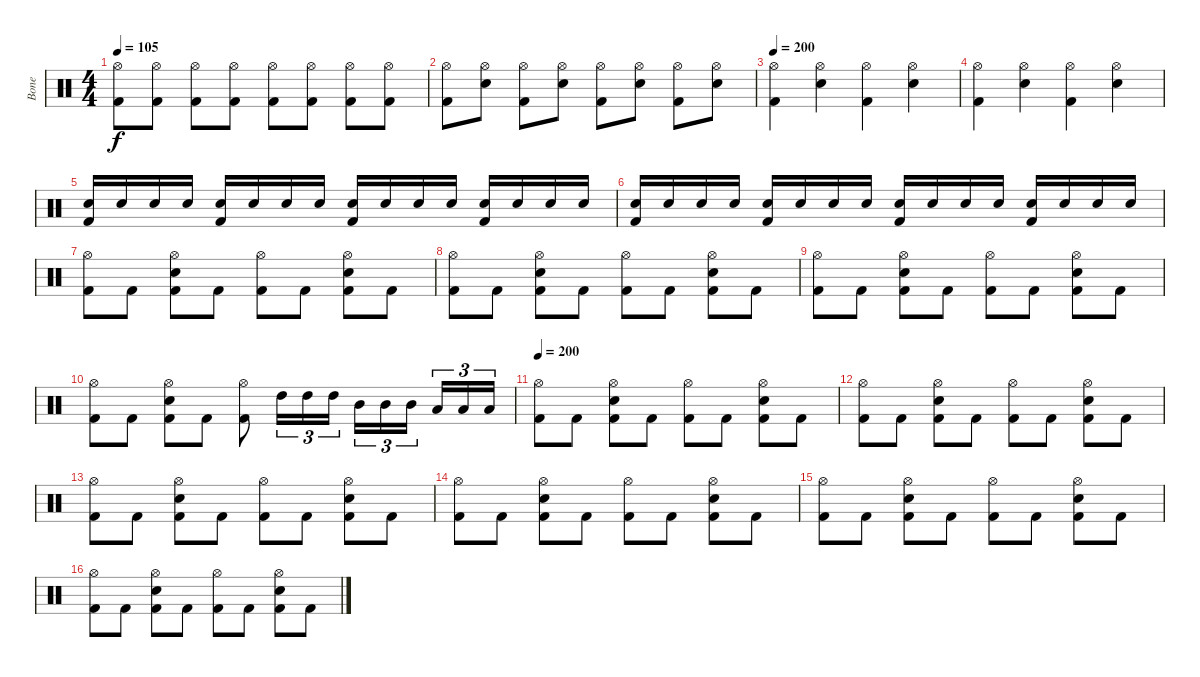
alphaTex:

\track ("Bone " "Bone ") {instrument percussion}
\staff {score}
\articulation defaults
\ts (4 4)
\tempo 105
\clef neutral
\ks c
("Hi-Hat (open)" "Kick (hit) 2").8{dy f} ("Hi-Hat (open)" "Kick (hit) 2").8 ("Hi-Hat (open)" "Kick (hit) 2").8 ("Hi-Hat (open)" "Kick (hit) 2").8 ("Hi-Hat (open)" "Kick (hit) 2").8 ("Hi-Hat (open)" "Kick (hit) 2").8 ("Hi-Hat (open)" "Kick (hit) 2").8 ("Hi-Hat (open)" "Kick (hit) 2").8 |
("Hi-Hat (open)" "Kick (hit) 2").8 ("Hi-Hat (open)" "Electric Snare (hit)").8 ("Hi-Hat (open)" "Kick (hit) 2").8 ("Hi-Hat (open)" "Electric Snare (hit)").8 ("Hi-Hat (open)" "Kick (hit) 2").8 ("Hi-Hat (open)" "Electric Snare (hit)").8 ("Hi-Hat (open)" "Kick (hit) 2").8 ("Hi-Hat (open)" "Electric Snare (hit)").8 |
\tempo 200
("Hi-Hat (open)" "Kick (hit) 2").4 ("Hi-Hat (open)" "Electric Snare (hit)").4 ("Hi-Hat (open)" "Kick (hit) 2").4 ("Hi-Hat (open)" "Electric Snare (hit)").4 |
("Hi-Hat (open)" "Kick (hit) 2").4 ("Hi-Hat (open)" "Electric Snare (hit)").4 ("Hi-Hat (open)" "Kick (hit) 2").4 ("Hi-Hat (open)" "Electric Snare (hit)").4 |
("Electric Snare (hit)" "Kick (hit) 2").16 "Electric Snare (hit)".16 "Electric Snare (hit)".16 "Electric Snare (hit)".16 ("Electric Snare (hit)" "Kick (hit) 2").16 "Electric Snare (hit)".16 "Electric Snare (hit)".16 "Electric Snare (hit)".16 ("Electric Snare (hit)" "Kick (hit) 2").16 "Electric Snare (hit)".16 "Electric Snare (hit)".16 "Electric Snare (hit)".16 ("Electric Snare (hit)" "Kick (hit) 2").16 "Electric Snare (hit)".16 "Electric Snare (hit)".16 "Electric Snare (hit)".16 |
("Electric Snare (hit)" "Kick (hit) 2").16 "Electric Snare (hit)".16 "Electric Snare (hit)".16 "Electric Snare (hit)".16 ("Electric Snare (hit)" "Kick (hit) 2").16 "Electric Snare (hit)".16 "Electric Snare (hit)".16 "Electric Snare (hit)".16 ("Electric Snare (hit)" "Kick (hit) 2").16 "Electric Snare (hit)".16 "Electric Snare (hit)".16 "Electric Snare (hit)".16 ("Electric Snare (hit)" "Kick (hit) 2").16 "Electric Snare (hit)".16 "Electric Snare (hit)".16 "Electric Snare (hit)".16 |
("Hi-Hat (open)" "Kick (hit) 2").8 "Kick (hit) 2".8 ("Hi-Hat (open)" "Electric Snare (hit)" "Kick (hit) 2").8 "Kick (hit) 2".8 ("Hi-Hat (open)" "Kick (hit) 2").8 "Kick (hit) 2".8 ("Hi-Hat (open)" "Electric Snare (hit)" "Kick (hit) 2").8 "Kick (hit) 2".8 |
("Hi-Hat (open)" "Kick (hit) 2").8 "Kick (hit) 2".8 ("Hi-Hat (open)" "Electric Snare (hit)" "Kick (hit) 2").8 "Kick (hit) 2".8 ("Hi-Hat (open)" "Kick (hit) 2").8 "Kick (hit) 2".8 ("Hi-Hat (open)" "Electric Snare (hit)" "Kick (hit) 2").8 "Kick (hit) 2".8 |
("Hi-Hat (open)" "Kick (hit) 2").8 "Kick (hit) 2".8 ("Hi-Hat (open)" "Electric Snare (hit)" "Kick (hit) 2").8 "Kick (hit) 2".8 ("Hi-Hat (open)" "Kick (hit) 2").8 "Kick (hit) 2".8 ("Hi-Hat (open)" "Electric Snare (hit)" "Kick (hit) 2").8 "Kick (hit) 2".8 |
("Hi-Hat (open)" "Kick (hit) 2").8 "Kick (hit) 2".8 ("Hi-Hat (open)" "Electric Snare (hit)" "Kick (hit) 2").8 "Kick (hit) 2".8 ("Hi-Hat (open)" "Kick (hit) 2").8 "High Tom (hit)".16{tu (3 2)} "High Tom (hit)".16{tu (3 2)} "High Tom (hit)".16{tu (3 2)} "Mid Tom (hit)".16{tu (3 2)} "Mid Tom (hit)".16{tu (3 2)} "Mid Tom (hit)".16{tu (3 2)} "Low Tom (hit)".16{tu (3 2)} "Low Tom (hit)".16{tu (3 2)} "Low Tom (hit)".16{tu (3 2)} |
\tempo 200
("Hi-Hat (open)" "Kick (hit) 2").8 "Kick (hit) 2".8 ("Hi-Hat (open)" "Electric Snare (hit)" "Kick (hit) 2").8 "Kick (hit) 2".8 ("Hi-Hat (open)" "Kick (hit) 2").8 "Kick (hit) 2".8 ("Hi-Hat (open)" "Electric Snare (hit)" "Kick (hit) 2").8 "Kick (hit) 2".8 |
("Hi-Hat (open)" "Kick (hit) 2").8 "Kick (hit) 2".8 ("Hi-Hat (open)" "Electric Snare (hit)" "Kick (hit) 2").8 "Kick (hit) 2".8 ("Hi-Hat (open)" "Kick (hit) 2").8 "Kick (hit) 2".8 ("Hi-Hat (open)" "Electric Snare (hit)" "Kick (hit) 2").8 "Kick (hit) 2".8 |
("Hi-Hat (open)" "Kick (hit) 2").8 "Kick (hit) 2".8 ("Hi-Hat (open)" "Electric Snare (hit)" "Kick (hit) 2").8 "Kick (hit) 2".8 ("Hi-Hat (open)" "Kick (hit) 2").8 "Kick (hit) 2".8 ("Hi-Hat (open)" "Electric Snare (hit)" "Kick (hit) 2").8 "Kick (hit) 2".8 |
("Hi-Hat (open)" "Kick (hit) 2").8 "Kick (hit) 2".8 ("Hi-Hat (open)" "Electric Snare (hit)" "Kick (hit) 2").8 "Kick (hit) 2".8 ("Hi-Hat (open)" "Kick (hit) 2").8 "Kick (hit) 2".8 ("Hi-Hat (open)" "Electric Snare (hit)" "Kick (hit) 2").8 "Kick (hit) 2".8 |
("Hi-Hat (open)" "Kick (hit) 2").8 "Kick (hit) 2".8 ("Hi-Hat (open)" "Electric Snare (hit)" "Kick (hit) 2").8 "Kick (hit) 2".8 ("Hi-Hat (open)" "Kick (hit) 2").8 "Kick (hit) 2".8 ("Hi-Hat (open)" "Electric Snare (hit)" "Kick (hit) 2").8 "Kick (hit) 2".8 |
("Hi-Hat (open)" "Kick (hit) 2").8 "Kick (hit) 2".8 ("Hi-Hat (open)" "Electric Snare (hit)" "Kick (hit) 2").8 "Kick (hit) 2".8 ("Hi-Hat (open)" "Kick (hit) 2").8 "Kick (hit) 2".8 ("Hi-Hat (open)" "Electric Snare (hit)" "Kick (hit) 2").8 "Kick (hit) 2".8
